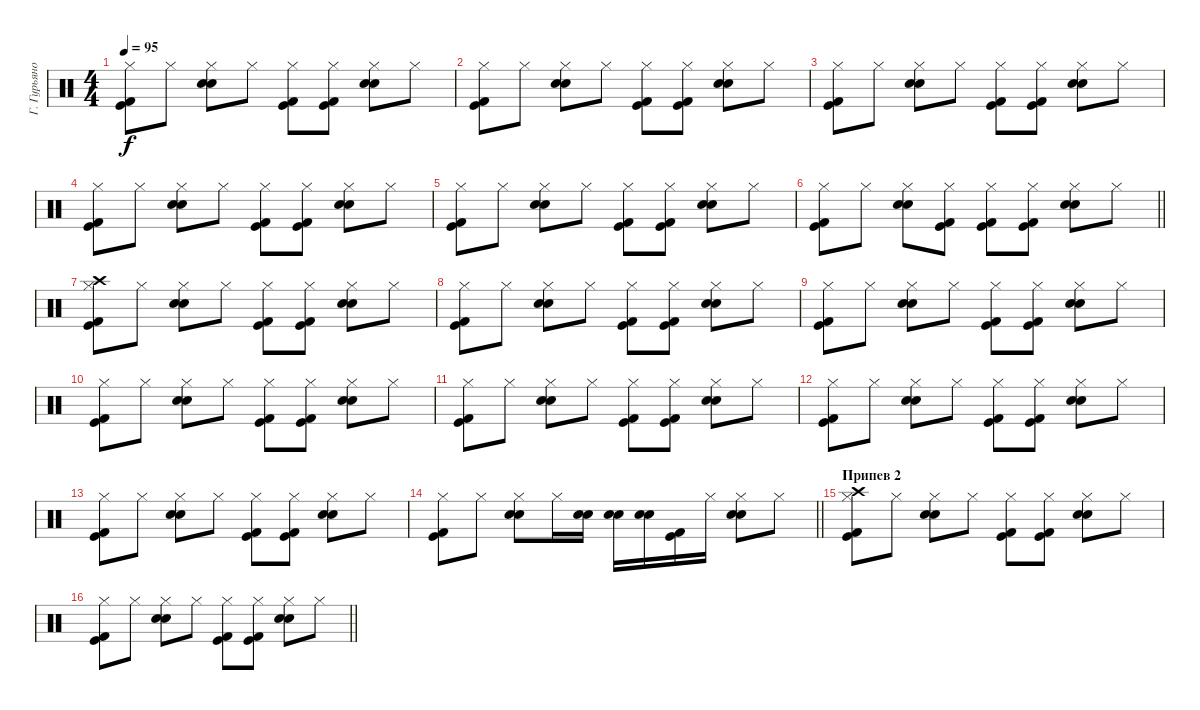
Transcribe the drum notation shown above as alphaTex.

\track ("Г. Гурьянов" "Г. Гурьяно") {instrument percussion}
\staff {score}
\articulation defaults
\ts (4 4)
\tempo 95
\clef neutral
\ks c
("Kick (hit) 2" "Kick (hit)" "Hi-Hat (closed)").8{dy f} "Hi-Hat (closed)".8 ("Electric Snare (hit)" "Snare (hit) 2" "Hi-Hat (closed)").8 "Hi-Hat (closed)".8 ("Kick (hit) 2" "Kick (hit)" "Hi-Hat (closed)").8 ("Kick (hit) 2" "Kick (hit)" "Hi-Hat (closed)").8 ("Electric Snare (hit)" "Snare (hit) 2" "Hi-Hat (closed)").8 "Hi-Hat (closed)".8 |
("Kick (hit) 2" "Kick (hit)" "Hi-Hat (closed)").8 "Hi-Hat (closed)".8 ("Electric Snare (hit)" "Snare (hit) 2" "Hi-Hat (closed)").8 "Hi-Hat (closed)".8 ("Kick (hit) 2" "Kick (hit)" "Hi-Hat (closed)").8 ("Kick (hit) 2" "Kick (hit)" "Hi-Hat (closed)").8 ("Electric Snare (hit)" "Snare (hit) 2" "Hi-Hat (closed)").8 "Hi-Hat (closed)".8 |
("Kick (hit) 2" "Kick (hit)" "Hi-Hat (closed)").8 "Hi-Hat (closed)".8 ("Electric Snare (hit)" "Snare (hit) 2" "Hi-Hat (closed)").8 "Hi-Hat (closed)".8 ("Kick (hit) 2" "Kick (hit)" "Hi-Hat (closed)").8 ("Kick (hit) 2" "Kick (hit)" "Hi-Hat (closed)").8 ("Electric Snare (hit)" "Snare (hit) 2" "Hi-Hat (closed)").8 "Hi-Hat (closed)".8 |
("Kick (hit) 2" "Kick (hit)" "Hi-Hat (closed)").8 "Hi-Hat (closed)".8 ("Electric Snare (hit)" "Snare (hit) 2" "Hi-Hat (closed)").8 "Hi-Hat (closed)".8 ("Kick (hit) 2" "Kick (hit)" "Hi-Hat (closed)").8 ("Kick (hit) 2" "Kick (hit)" "Hi-Hat (closed)").8 ("Electric Snare (hit)" "Snare (hit) 2" "Hi-Hat (closed)").8 "Hi-Hat (closed)".8 |
("Kick (hit) 2" "Kick (hit)" "Hi-Hat (closed)").8 "Hi-Hat (closed)".8 ("Electric Snare (hit)" "Snare (hit) 2" "Hi-Hat (closed)").8 "Hi-Hat (closed)".8 ("Kick (hit) 2" "Kick (hit)" "Hi-Hat (closed)").8 ("Kick (hit) 2" "Kick (hit)" "Hi-Hat (closed)").8 ("Electric Snare (hit)" "Snare (hit) 2" "Hi-Hat (closed)").8 "Hi-Hat (closed)".8 |
\barLineRight lightlight
("Kick (hit) 2" "Kick (hit)" "Hi-Hat (closed)").8 "Hi-Hat (closed)".8 ("Electric Snare (hit)" "Snare (hit) 2" "Hi-Hat (closed)").8 ("Kick (hit) 2" "Kick (hit)" "Hi-Hat (closed)").8 ("Kick (hit) 2" "Kick (hit)" "Hi-Hat (closed)").8 ("Kick (hit) 2" "Kick (hit)" "Hi-Hat (closed)").8 ("Electric Snare (hit)" "Snare (hit) 2" "Hi-Hat (closed)").8 "Hi-Hat (closed)".8 |
("Kick (hit) 2" "Kick (hit)" "Crash high (hit)" "Hi-Hat (closed)").8 "Hi-Hat (closed)".8 ("Electric Snare (hit)" "Snare (hit) 2" "Hi-Hat (closed)").8 "Hi-Hat (closed)".8 ("Kick (hit) 2" "Kick (hit)" "Hi-Hat (closed)").8 ("Kick (hit) 2" "Kick (hit)" "Hi-Hat (closed)").8 ("Electric Snare (hit)" "Snare (hit) 2" "Hi-Hat (closed)").8 "Hi-Hat (closed)".8 |
("Kick (hit) 2" "Kick (hit)" "Hi-Hat (closed)").8 "Hi-Hat (closed)".8 ("Electric Snare (hit)" "Snare (hit) 2" "Hi-Hat (closed)").8 "Hi-Hat (closed)".8 ("Kick (hit) 2" "Kick (hit)" "Hi-Hat (closed)").8 ("Kick (hit) 2" "Kick (hit)" "Hi-Hat (closed)").8 ("Electric Snare (hit)" "Snare (hit) 2" "Hi-Hat (closed)").8 "Hi-Hat (closed)".8 |
("Kick (hit) 2" "Kick (hit)" "Hi-Hat (closed)").8 "Hi-Hat (closed)".8 ("Electric Snare (hit)" "Snare (hit) 2" "Hi-Hat (closed)").8 "Hi-Hat (closed)".8 ("Kick (hit) 2" "Kick (hit)" "Hi-Hat (closed)").8 ("Kick (hit) 2" "Kick (hit)" "Hi-Hat (closed)").8 ("Electric Snare (hit)" "Snare (hit) 2" "Hi-Hat (closed)").8 "Hi-Hat (closed)".8 |
("Kick (hit) 2" "Kick (hit)" "Hi-Hat (closed)").8 "Hi-Hat (closed)".8 ("Electric Snare (hit)" "Snare (hit) 2" "Hi-Hat (closed)").8 "Hi-Hat (closed)".8 ("Kick (hit) 2" "Kick (hit)" "Hi-Hat (closed)").8 ("Kick (hit) 2" "Kick (hit)" "Hi-Hat (closed)").8 ("Electric Snare (hit)" "Snare (hit) 2" "Hi-Hat (closed)").8 "Hi-Hat (closed)".8 |
("Kick (hit) 2" "Kick (hit)" "Hi-Hat (closed)").8 "Hi-Hat (closed)".8 ("Electric Snare (hit)" "Snare (hit) 2" "Hi-Hat (closed)").8 "Hi-Hat (closed)".8 ("Kick (hit) 2" "Kick (hit)" "Hi-Hat (closed)").8 ("Kick (hit) 2" "Kick (hit)" "Hi-Hat (closed)").8 ("Electric Snare (hit)" "Snare (hit) 2" "Hi-Hat (closed)").8 "Hi-Hat (closed)".8 |
("Kick (hit) 2" "Kick (hit)" "Hi-Hat (closed)").8 "Hi-Hat (closed)".8 ("Electric Snare (hit)" "Snare (hit) 2" "Hi-Hat (closed)").8 "Hi-Hat (closed)".8 ("Kick (hit) 2" "Kick (hit)" "Hi-Hat (closed)").8 ("Kick (hit) 2" "Kick (hit)" "Hi-Hat (closed)").8 ("Electric Snare (hit)" "Snare (hit) 2" "Hi-Hat (closed)").8 "Hi-Hat (closed)".8 |
("Kick (hit) 2" "Kick (hit)" "Hi-Hat (closed)").8 "Hi-Hat (closed)".8 ("Electric Snare (hit)" "Snare (hit) 2" "Hi-Hat (closed)").8 "Hi-Hat (closed)".8 ("Kick (hit) 2" "Kick (hit)" "Hi-Hat (closed)").8 ("Kick (hit) 2" "Kick (hit)" "Hi-Hat (closed)").8 ("Electric Snare (hit)" "Snare (hit) 2" "Hi-Hat (closed)").8 "Hi-Hat (closed)".8 |
\barLineRight lightlight
("Kick (hit) 2" "Kick (hit)" "Hi-Hat (closed)").8 "Hi-Hat (closed)".8 ("Electric Snare (hit)" "Snare (hit) 2" "Hi-Hat (closed)").8 "Hi-Hat (closed)".16 ("Electric Snare (hit)" "Snare (hit) 2").16 ("Electric Snare (hit)" "Snare (hit) 2").16 ("Electric Snare (hit)" "Snare (hit) 2").16 ("Kick (hit) 2" "Kick (hit)").16 "Hi-Hat (closed)".16 ("Electric Snare (hit)" "Snare (hit) 2" "Hi-Hat (closed)").8 "Hi-Hat (closed)".8 |
\section ("" "Припев 2")
("Kick (hit) 2" "Kick (hit)" "Crash high (hit)" "Hi-Hat (closed)").8 "Hi-Hat (closed)".8 ("Electric Snare (hit)" "Snare (hit) 2" "Hi-Hat (closed)").8 "Hi-Hat (closed)".8 ("Kick (hit) 2" "Kick (hit)" "Hi-Hat (closed)").8 ("Kick (hit) 2" "Kick (hit)" "Hi-Hat (closed)").8 ("Electric Snare (hit)" "Snare (hit) 2" "Hi-Hat (closed)").8 "Hi-Hat (closed)".8 |
\barLineRight lightlight
("Kick (hit) 2" "Kick (hit)" "Hi-Hat (closed)").8 "Hi-Hat (closed)".8 ("Electric Snare (hit)" "Snare (hit) 2" "Hi-Hat (closed)").8 "Hi-Hat (closed)".8 ("Kick (hit) 2" "Kick (hit)" "Hi-Hat (closed)").8 ("Kick (hit) 2" "Kick (hit)" "Hi-Hat (closed)").8 ("Electric Snare (hit)" "Snare (hit) 2" "Hi-Hat (closed)").8 "Hi-Hat (closed)".8
